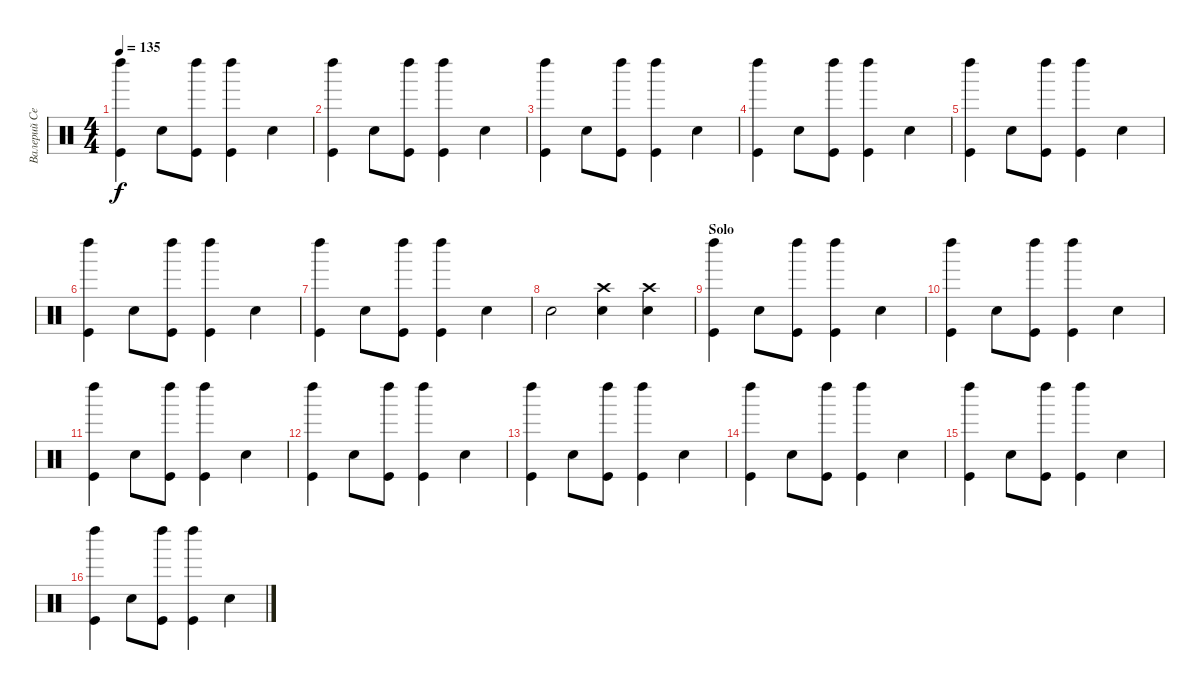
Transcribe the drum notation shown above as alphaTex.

\track ("Валерий Северин" "Валерий Се") {instrument percussion}
\staff {score}
\articulation defaults
\ts (4 4)
\tempo 135
\clef neutral
\ks c
("Kick (hit)" "Left Maraca (hit)").4{dy f} "Snare (hit) 2".8 ("Kick (hit)" "Left Maraca (hit)").8 ("Kick (hit)" "Left Maraca (hit)").4 "Snare (hit) 2".4 |
("Kick (hit)" "Left Maraca (hit)").4 "Snare (hit) 2".8 ("Kick (hit)" "Left Maraca (hit)").8 ("Kick (hit)" "Left Maraca (hit)").4 "Snare (hit) 2".4 |
("Kick (hit)" "Left Maraca (hit)").4 "Snare (hit) 2".8 ("Kick (hit)" "Left Maraca (hit)").8 ("Kick (hit)" "Left Maraca (hit)").4 "Snare (hit) 2".4 |
("Kick (hit)" "Left Maraca (hit)").4 "Snare (hit) 2".8 ("Kick (hit)" "Left Maraca (hit)").8 ("Kick (hit)" "Left Maraca (hit)").4 "Snare (hit) 2".4 |
("Kick (hit)" "Left Maraca (hit)").4 "Snare (hit) 2".8 ("Kick (hit)" "Left Maraca (hit)").8 ("Kick (hit)" "Left Maraca (hit)").4 "Snare (hit) 2".4 |
("Kick (hit)" "Left Maraca (hit)").4 "Snare (hit) 2".8 ("Kick (hit)" "Left Maraca (hit)").8 ("Kick (hit)" "Left Maraca (hit)").4 "Snare (hit) 2".4 |
("Kick (hit)" "Left Maraca (hit)").4 "Snare (hit) 2".8 ("Kick (hit)" "Left Maraca (hit)").8 ("Kick (hit)" "Left Maraca (hit)").4 "Snare (hit) 2".4 |
"Snare (hit) 2".2 ("Snare (hit) 2" "Crash high (hit)").4 ("Snare (hit) 2" "Crash high (hit)").4 |
\section ("" "Solo")
("Kick (hit)" "Left Maraca (hit)").4 "Snare (hit) 2".8 ("Kick (hit)" "Left Maraca (hit)").8 ("Kick (hit)" "Left Maraca (hit)").4 "Snare (hit) 2".4 |
("Kick (hit)" "Left Maraca (hit)").4 "Snare (hit) 2".8 ("Kick (hit)" "Left Maraca (hit)").8 ("Kick (hit)" "Left Maraca (hit)").4 "Snare (hit) 2".4 |
("Kick (hit)" "Left Maraca (hit)").4 "Snare (hit) 2".8 ("Kick (hit)" "Left Maraca (hit)").8 ("Kick (hit)" "Left Maraca (hit)").4 "Snare (hit) 2".4 |
("Kick (hit)" "Left Maraca (hit)").4 "Snare (hit) 2".8 ("Kick (hit)" "Left Maraca (hit)").8 ("Kick (hit)" "Left Maraca (hit)").4 "Snare (hit) 2".4 |
("Kick (hit)" "Left Maraca (hit)").4 "Snare (hit) 2".8 ("Kick (hit)" "Left Maraca (hit)").8 ("Kick (hit)" "Left Maraca (hit)").4 "Snare (hit) 2".4 |
("Kick (hit)" "Left Maraca (hit)").4 "Snare (hit) 2".8 ("Kick (hit)" "Left Maraca (hit)").8 ("Kick (hit)" "Left Maraca (hit)").4 "Snare (hit) 2".4 |
("Kick (hit)" "Left Maraca (hit)").4 "Snare (hit) 2".8 ("Kick (hit)" "Left Maraca (hit)").8 ("Kick (hit)" "Left Maraca (hit)").4 "Snare (hit) 2".4 |
("Kick (hit)" "Left Maraca (hit)").4 "Snare (hit) 2".8 ("Kick (hit)" "Left Maraca (hit)").8 ("Kick (hit)" "Left Maraca (hit)").4 "Snare (hit) 2".4
